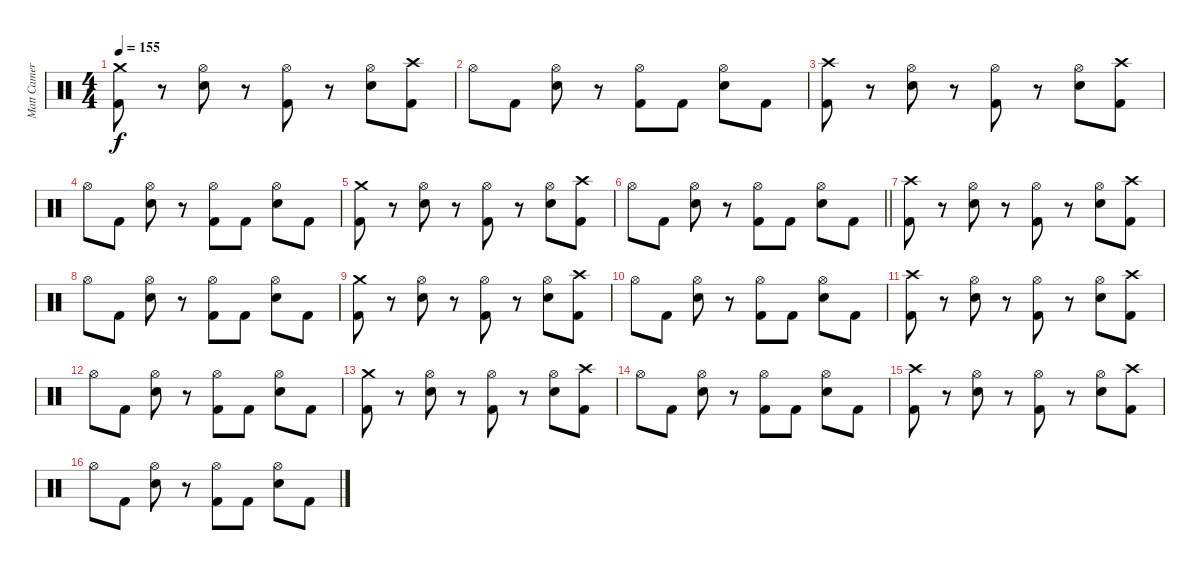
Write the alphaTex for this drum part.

\track ("Matt Cameron" "Matt Camer") {instrument percussion}
\staff {score}
\articulation defaults
\ts (4 4)
\tempo 155
\clef neutral
\ks c
("Crash medium (hit)" "Kick (hit) 2").8{dy f} r.8 ("Hi-Hat (open)" "Snare (hit) 2").8 r.8 ("Hi-Hat (open)" "Kick (hit) 2").8 r.8 ("Hi-Hat (open)" "Snare (hit) 2").8 ("Crash high (hit)" "Kick (hit) 2").8 |
"Hi-Hat (open)".8 "Kick (hit) 2".8 ("Hi-Hat (open)" "Snare (hit) 2").8 r.8 ("Hi-Hat (open)" "Kick (hit) 2").8 "Kick (hit) 2".8 ("Hi-Hat (open)" "Snare (hit) 2").8 "Kick (hit) 2".8 |
("Crash high (hit)" "Kick (hit) 2").8 r.8 ("Hi-Hat (open)" "Snare (hit) 2").8 r.8 ("Hi-Hat (open)" "Kick (hit) 2").8 r.8 ("Hi-Hat (open)" "Snare (hit) 2").8 ("Crash high (hit)" "Kick (hit) 2").8 |
"Hi-Hat (open)".8 "Kick (hit) 2".8 ("Hi-Hat (open)" "Snare (hit) 2").8 r.8 ("Hi-Hat (open)" "Kick (hit) 2").8 "Kick (hit) 2".8 ("Hi-Hat (open)" "Snare (hit) 2").8 "Kick (hit) 2".8 |
("Crash medium (hit)" "Kick (hit) 2").8 r.8 ("Hi-Hat (open)" "Snare (hit) 2").8 r.8 ("Hi-Hat (open)" "Kick (hit) 2").8 r.8 ("Hi-Hat (open)" "Snare (hit) 2").8 ("Crash high (hit)" "Kick (hit) 2").8 |
\barLineRight lightlight "Hi-Hat (open)".8 "Kick (hit) 2".8
("Hi-Hat (open)" "Snare (hit) 2").8 r.8 ("Hi-Hat (open)" "Kick (hit) 2").8 "Kick (hit) 2".8 ("Hi-Hat (open)" "Snare (hit) 2").8 "Kick (hit) 2".8 |
("Crash high (hit)" "Kick (hit) 2").8 r.8 ("Hi-Hat (open)" "Snare (hit) 2").8 r.8 ("Hi-Hat (open)" "Kick (hit) 2").8 r.8 ("Hi-Hat (open)" "Snare (hit) 2").8 ("Crash high (hit)" "Kick (hit) 2").8 |
"Hi-Hat (open)".8 "Kick (hit) 2".8 ("Hi-Hat (open)" "Snare (hit) 2").8 r.8 ("Hi-Hat (open)" "Kick (hit) 2").8 "Kick (hit) 2".8 ("Hi-Hat (open)" "Snare (hit) 2").8 "Kick (hit) 2".8 |
("Crash medium (hit)" "Kick (hit) 2").8 r.8 ("Hi-Hat (open)" "Snare (hit) 2").8 r.8 ("Hi-Hat (open)" "Kick (hit) 2").8 r.8 ("Hi-Hat (open)" "Snare (hit) 2").8 ("Crash high (hit)" "Kick (hit) 2").8 |
"Hi-Hat (open)".8 "Kick (hit) 2".8 ("Hi-Hat (open)" "Snare (hit) 2").8 r.8 ("Hi-Hat (open)" "Kick (hit) 2").8 "Kick (hit) 2".8 ("Hi-Hat (open)" "Snare (hit) 2").8 "Kick (hit) 2".8 |
("Crash high (hit)" "Kick (hit) 2").8 r.8 ("Hi-Hat (open)" "Snare (hit) 2").8 r.8 ("Hi-Hat (open)" "Kick (hit) 2").8 r.8 ("Hi-Hat (open)" "Snare (hit) 2").8 ("Crash high (hit)" "Kick (hit) 2").8 |
"Hi-Hat (open)".8 "Kick (hit) 2".8 ("Hi-Hat (open)" "Snare (hit) 2").8 r.8 ("Hi-Hat (open)" "Kick (hit) 2").8 "Kick (hit) 2".8 ("Hi-Hat (open)" "Snare (hit) 2").8 "Kick (hit) 2".8 |
("Crash medium (hit)" "Kick (hit) 2").8 r.8 ("Hi-Hat (open)" "Snare (hit) 2").8 r.8 ("Hi-Hat (open)" "Kick (hit) 2").8 r.8 ("Hi-Hat (open)" "Snare (hit) 2").8 ("Crash high (hit)" "Kick (hit) 2").8 |
"Hi-Hat (open)".8 "Kick (hit) 2".8 ("Hi-Hat (open)" "Snare (hit) 2").8 r.8 ("Hi-Hat (open)" "Kick (hit) 2").8 "Kick (hit) 2".8 ("Hi-Hat (open)" "Snare (hit) 2").8 "Kick (hit) 2".8 |
("Crash high (hit)" "Kick (hit) 2").8 r.8 ("Hi-Hat (open)" "Snare (hit) 2").8 r.8 ("Hi-Hat (open)" "Kick (hit) 2").8 r.8 ("Hi-Hat (open)" "Snare (hit) 2").8 ("Crash high (hit)" "Kick (hit) 2").8 |
"Hi-Hat (open)".8 "Kick (hit) 2".8 ("Hi-Hat (open)" "Snare (hit) 2").8 r.8 ("Hi-Hat (open)" "Kick (hit) 2").8 "Kick (hit) 2".8 ("Hi-Hat (open)" "Snare (hit) 2").8 "Kick (hit) 2".8
